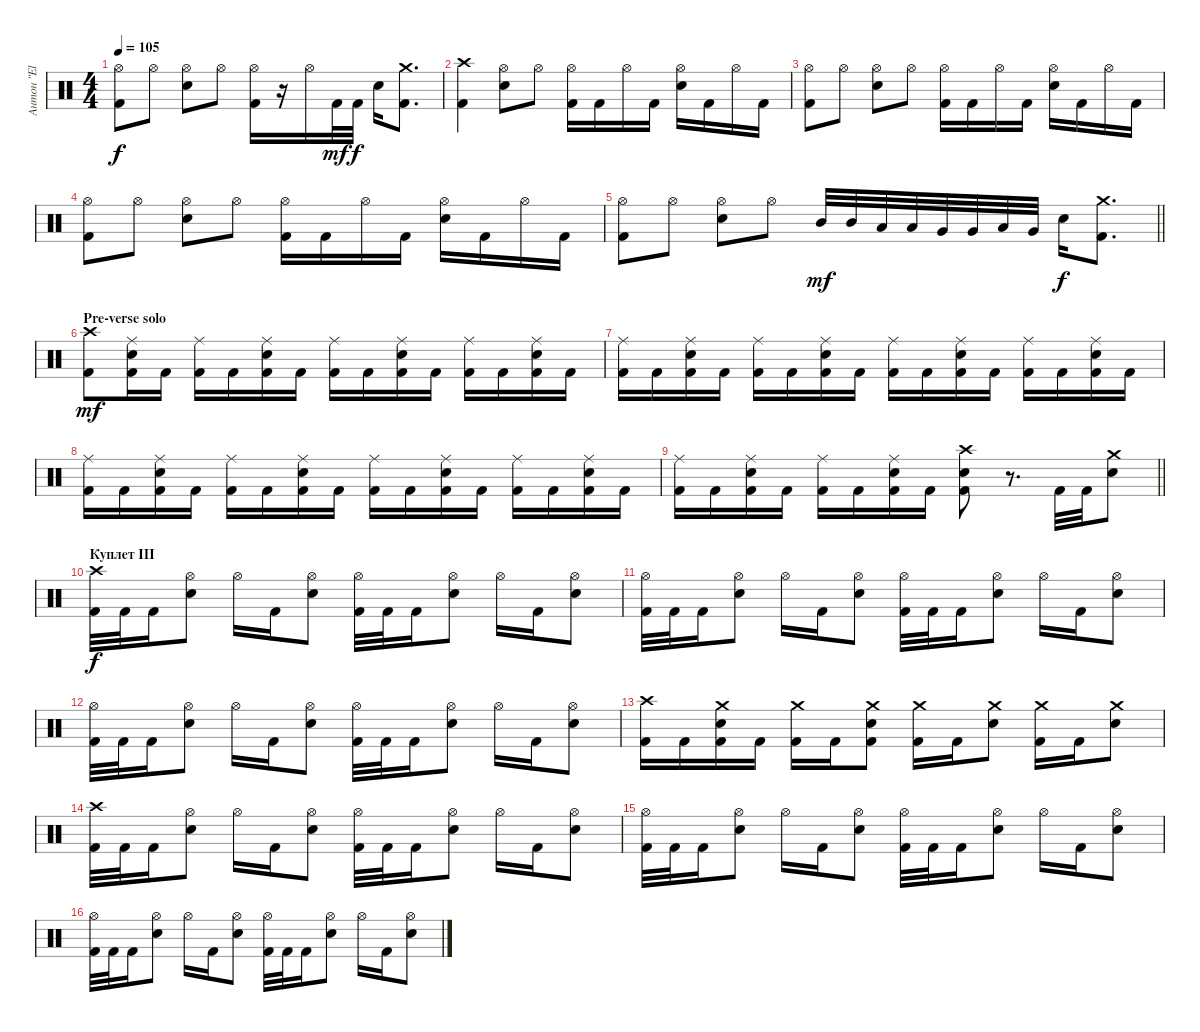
\track ("Антон \"El Bastardo\" Смольянин" "Антон \"El ") {instrument percussion}
\staff {score}
\articulation defaults
\ts (4 4)
\tempo 105
\clef neutral
\ks c
("Hi-Hat (open)" "Kick (hit) 2").8{dy f} "Hi-Hat (open)".8 ("Hi-Hat (open)" "Electric Snare (hit)").8 "Hi-Hat (open)".8 ("Hi-Hat (open)" "Kick (hit) 2").16 r.16 "Hi-Hat (open)".16 "Kick (hit) 2".32{dy mf} "Kick (hit) 2".32{dy f} "Electric Snare (hit)".16 ("Crash medium (hit)" "Kick (hit) 2").8{d} |
("Crash high (hit)" "Kick (hit) 2").4 ("Hi-Hat (open)" "Electric Snare (hit)").8 "Hi-Hat (open)".8 ("Hi-Hat (open)" "Kick (hit) 2").16 "Kick (hit) 2".16 "Hi-Hat (open)".16 "Kick (hit) 2".16 ("Hi-Hat (open)" "Electric Snare (hit)").16 "Kick (hit) 2".16 "Hi-Hat (open)".16 "Kick (hit) 2".16 |
("Hi-Hat (open)" "Kick (hit) 2").8 "Hi-Hat (open)".8 ("Hi-Hat (open)" "Electric Snare (hit)").8 "Hi-Hat (open)".8 ("Hi-Hat (open)" "Kick (hit) 2").16 "Kick (hit) 2".16 "Hi-Hat (open)".16 "Kick (hit) 2".16 ("Hi-Hat (open)" "Electric Snare (hit)").16 "Kick (hit) 2".16 "Hi-Hat (open)".16 "Kick (hit) 2".16 |
("Hi-Hat (open)" "Kick (hit) 2").8 "Hi-Hat (open)".8 ("Hi-Hat (open)" "Electric Snare (hit)").8 "Hi-Hat (open)".8 ("Hi-Hat (open)" "Kick (hit) 2").16 "Kick (hit) 2".16 "Hi-Hat (open)".16 "Kick (hit) 2".16 ("Hi-Hat (open)" "Electric Snare (hit)").16 "Kick (hit) 2".16 "Hi-Hat (open)".16 "Kick (hit) 2".16 |
\barLineRight lightlight
("Hi-Hat (open)" "Kick (hit) 2").8 "Hi-Hat (open)".8 ("Hi-Hat (open)" "Electric Snare (hit)").8 "Hi-Hat (open)".8 "Mid Tom (hit)".32{dy mf} "Mid Tom (hit)".32 "Low Tom (hit)".32 "Low Tom (hit)".32 "Very Low Tom (hit)".32 "Very Low Tom (hit)".32 "Low Tom (hit)".32 "Very Low Tom (hit)".32 "Electric Snare (hit)".16{dy f} ("Crash medium (hit)" "Kick (hit) 2").8{d} |
\section ("" "Pre-verse solo")
("Crash high (hit)" "Kick (hit) 2").8{dy mf} ("Ride (middle)" "Electric Snare (hit)" "Kick (hit) 2").16 "Kick (hit) 2".16 ("Ride (middle)" "Kick (hit) 2").16 "Kick (hit) 2".16 ("Ride (middle)" "Electric Snare (hit)" "Kick (hit) 2").16 "Kick (hit) 2".16 ("Ride (middle)" "Kick (hit) 2").16 "Kick (hit) 2".16 ("Ride (middle)" "Electric Snare (hit)" "Kick (hit) 2").16 "Kick (hit) 2".16 ("Ride (middle)" "Kick (hit) 2").16 "Kick (hit) 2".16 ("Ride (middle)" "Electric Snare (hit)" "Kick (hit) 2").16 "Kick (hit) 2".16 |
("Ride (middle)" "Kick (hit) 2").16 "Kick (hit) 2".16 ("Ride (middle)" "Electric Snare (hit)" "Kick (hit) 2").16 "Kick (hit) 2".16 ("Ride (middle)" "Kick (hit) 2").16 "Kick (hit) 2".16 ("Ride (middle)" "Electric Snare (hit)" "Kick (hit) 2").16 "Kick (hit) 2".16 ("Ride (middle)" "Kick (hit) 2").16 "Kick (hit) 2".16 ("Ride (middle)" "Electric Snare (hit)" "Kick (hit) 2").16 "Kick (hit) 2".16 ("Ride (middle)" "Kick (hit) 2").16 "Kick (hit) 2".16 ("Ride (middle)" "Electric Snare (hit)" "Kick (hit) 2").16 "Kick (hit) 2".16 |
("Ride (middle)" "Kick (hit) 2").16 "Kick (hit) 2".16 ("Ride (middle)" "Electric Snare (hit)" "Kick (hit) 2").16 "Kick (hit) 2".16 ("Ride (middle)" "Kick (hit) 2").16 "Kick (hit) 2".16 ("Ride (middle)" "Electric Snare (hit)" "Kick (hit) 2").16 "Kick (hit) 2".16 ("Ride (middle)" "Kick (hit) 2").16 "Kick (hit) 2".16 ("Ride (middle)" "Electric Snare (hit)" "Kick (hit) 2").16 "Kick (hit) 2".16 ("Ride (middle)" "Kick (hit) 2").16 "Kick (hit) 2".16 ("Ride (middle)" "Electric Snare (hit)" "Kick (hit) 2").16 "Kick (hit) 2".16 |
\barLineRight lightlight
("Ride (middle)" "Kick (hit) 2").16 "Kick (hit) 2".16 ("Ride (middle)" "Electric Snare (hit)" "Kick (hit) 2").16 "Kick (hit) 2".16 ("Ride (middle)" "Kick (hit) 2").16 "Kick (hit) 2".16 ("Ride (middle)" "Electric Snare (hit)" "Kick (hit) 2").16 "Kick (hit) 2".16 ("Crash high (hit)" "Electric Snare (hit)" "Kick (hit) 2").8 r.8{d} "Kick (hit) 2".32 "Kick (hit) 2".32 ("Crash medium (hit)" "Electric Snare (hit)").8 |
\section ("" "Куплет III")
("Crash high (hit)" "Kick (hit) 2").32{dy f} "Kick (hit) 2".32 "Kick (hit) 2".16 ("Hi-Hat (open)" "Electric Snare (hit)").8 "Hi-Hat (open)".16 "Kick (hit) 2".16 ("Hi-Hat (open)" "Electric Snare (hit)").8 ("Hi-Hat (open)" "Kick (hit) 2").32 "Kick (hit) 2".32 "Kick (hit) 2".16 ("Hi-Hat (open)" "Electric Snare (hit)").8 "Hi-Hat (open)".16 "Kick (hit) 2".16 ("Hi-Hat (open)" "Electric Snare (hit)").8 |
("Hi-Hat (open)" "Kick (hit) 2").32 "Kick (hit) 2".32 "Kick (hit) 2".16 ("Hi-Hat (open)" "Electric Snare (hit)").8 "Hi-Hat (open)".16 "Kick (hit) 2".16 ("Hi-Hat (open)" "Electric Snare (hit)").8 ("Hi-Hat (open)" "Kick (hit) 2").32 "Kick (hit) 2".32 "Kick (hit) 2".16 ("Hi-Hat (open)" "Electric Snare (hit)").8 "Hi-Hat (open)".16 "Kick (hit) 2".16 ("Hi-Hat (open)" "Electric Snare (hit)").8 |
("Hi-Hat (open)" "Kick (hit) 2").32 "Kick (hit) 2".32 "Kick (hit) 2".16 ("Hi-Hat (open)" "Electric Snare (hit)").8 "Hi-Hat (open)".16 "Kick (hit) 2".16 ("Hi-Hat (open)" "Electric Snare (hit)").8 ("Hi-Hat (open)" "Kick (hit) 2").32 "Kick (hit) 2".32 "Kick (hit) 2".16 ("Hi-Hat (open)" "Electric Snare (hit)").8 "Hi-Hat (open)".16 "Kick (hit) 2".16 ("Hi-Hat (open)" "Electric Snare (hit)").8 |
("Crash high (hit)" "Kick (hit) 2").16 "Kick (hit) 2".16 ("Crash medium (hit)" "Electric Snare (hit)" "Kick (hit) 2").16 "Kick (hit) 2".16 ("Crash medium (hit)" "Kick (hit) 2").16 "Kick (hit) 2".16 ("Crash medium (hit)" "Electric Snare (hit)" "Kick (hit) 2").8 ("Crash medium (hit)" "Kick (hit) 2").16 "Kick (hit) 2".16 ("Crash medium (hit)" "Electric Snare (hit)").8 ("Crash medium (hit)" "Kick (hit) 2").16 "Kick (hit) 2".16 ("Crash medium (hit)" "Electric Snare (hit)").8 |
("Crash high (hit)" "Kick (hit) 2").32 "Kick (hit) 2".32 "Kick (hit) 2".16 ("Hi-Hat (open)" "Electric Snare (hit)").8 "Hi-Hat (open)".16 "Kick (hit) 2".16 ("Hi-Hat (open)" "Electric Snare (hit)").8 ("Hi-Hat (open)" "Kick (hit) 2").32 "Kick (hit) 2".32 "Kick (hit) 2".16 ("Hi-Hat (open)" "Electric Snare (hit)").8 "Hi-Hat (open)".16 "Kick (hit) 2".16 ("Hi-Hat (open)" "Electric Snare (hit)").8 |
("Hi-Hat (open)" "Kick (hit) 2").32 "Kick (hit) 2".32 "Kick (hit) 2".16 ("Hi-Hat (open)" "Electric Snare (hit)").8 "Hi-Hat (open)".16 "Kick (hit) 2".16 ("Hi-Hat (open)" "Electric Snare (hit)").8 ("Hi-Hat (open)" "Kick (hit) 2").32 "Kick (hit) 2".32 "Kick (hit) 2".16 ("Hi-Hat (open)" "Electric Snare (hit)").8 "Hi-Hat (open)".16 "Kick (hit) 2".16 ("Hi-Hat (open)" "Electric Snare (hit)").8 |
("Hi-Hat (open)" "Kick (hit) 2").32 "Kick (hit) 2".32 "Kick (hit) 2".16 ("Hi-Hat (open)" "Electric Snare (hit)").8 "Hi-Hat (open)".16 "Kick (hit) 2".16 ("Hi-Hat (open)" "Electric Snare (hit)").8 ("Hi-Hat (open)" "Kick (hit) 2").32 "Kick (hit) 2".32 "Kick (hit) 2".16 ("Hi-Hat (open)" "Electric Snare (hit)").8 "Hi-Hat (open)".16 "Kick (hit) 2".16 ("Hi-Hat (open)" "Electric Snare (hit)").8
